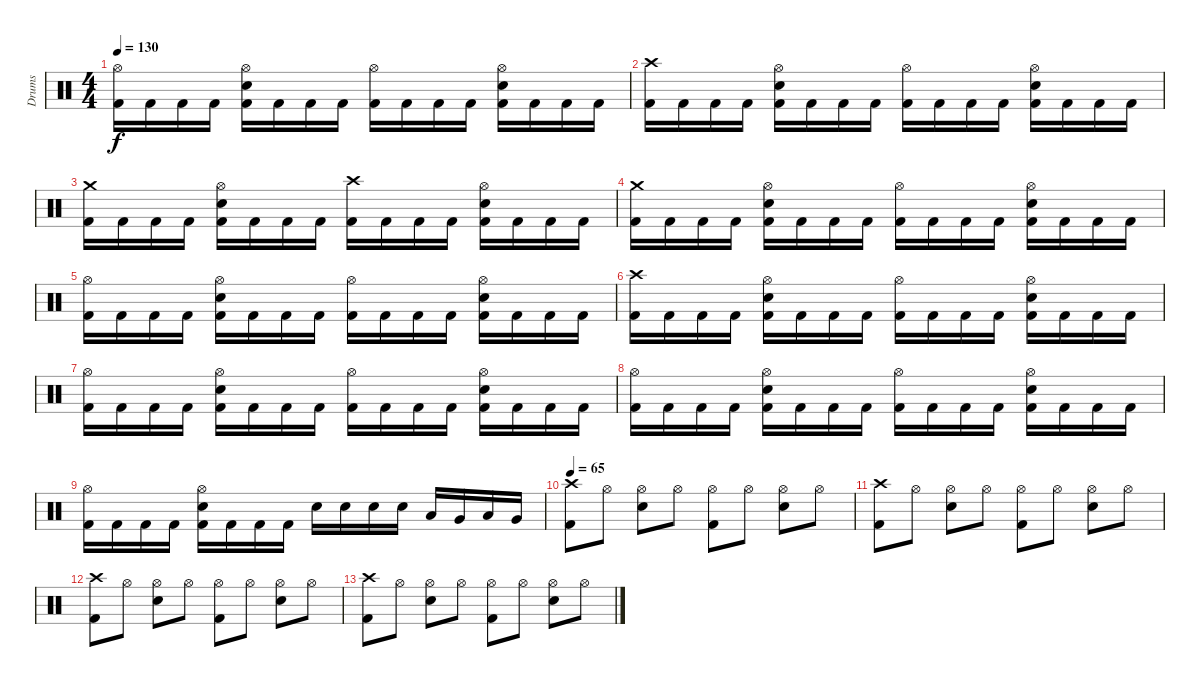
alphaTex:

\track ("Drums" "Drums") {instrument percussion}
\staff {score}
\articulation defaults
\ts (4 4)
\tempo 130
\clef neutral
\ks c
("Hi-Hat (open)" "Kick (hit) 2").16{dy f} "Kick (hit) 2".16 "Kick (hit) 2".16 "Kick (hit) 2".16 ("Hi-Hat (open)" "Electric Snare (hit)" "Kick (hit) 2").16 "Kick (hit) 2".16 "Kick (hit) 2".16 "Kick (hit) 2".16 ("Hi-Hat (open)" "Kick (hit) 2").16 "Kick (hit) 2".16 "Kick (hit) 2".16 "Kick (hit) 2".16 ("Hi-Hat (open)" "Electric Snare (hit)" "Kick (hit) 2").16 "Kick (hit) 2".16 "Kick (hit) 2".16 "Kick (hit) 2".16 |
("Crash high (hit)" "Kick (hit) 2").16 "Kick (hit) 2".16 "Kick (hit) 2".16 "Kick (hit) 2".16 ("Hi-Hat (open)" "Electric Snare (hit)" "Kick (hit) 2").16 "Kick (hit) 2".16 "Kick (hit) 2".16 "Kick (hit) 2".16 ("Hi-Hat (open)" "Kick (hit) 2").16 "Kick (hit) 2".16 "Kick (hit) 2".16 "Kick (hit) 2".16 ("Hi-Hat (open)" "Electric Snare (hit)" "Kick (hit) 2").16 "Kick (hit) 2".16 "Kick (hit) 2".16 "Kick (hit) 2".16 |
("Crash medium (hit)" "Kick (hit) 2").16 "Kick (hit) 2".16 "Kick (hit) 2".16 "Kick (hit) 2".16 ("Hi-Hat (open)" "Electric Snare (hit)" "Kick (hit) 2").16 "Kick (hit) 2".16 "Kick (hit) 2".16 "Kick (hit) 2".16 ("Crash high (hit)" "Kick (hit) 2").16 "Kick (hit) 2".16 "Kick (hit) 2".16 "Kick (hit) 2".16 ("Hi-Hat (open)" "Electric Snare (hit)" "Kick (hit) 2").16 "Kick (hit) 2".16 "Kick (hit) 2".16 "Kick (hit) 2".16 |
("Crash medium (hit)" "Kick (hit) 2").16 "Kick (hit) 2".16 "Kick (hit) 2".16 "Kick (hit) 2".16 ("Hi-Hat (open)" "Electric Snare (hit)" "Kick (hit) 2").16 "Kick (hit) 2".16 "Kick (hit) 2".16 "Kick (hit) 2".16 ("Hi-Hat (open)" "Kick (hit) 2").16 "Kick (hit) 2".16 "Kick (hit) 2".16 "Kick (hit) 2".16 ("Hi-Hat (open)" "Electric Snare (hit)" "Kick (hit) 2").16 "Kick (hit) 2".16 "Kick (hit) 2".16 "Kick (hit) 2".16 |
("Hi-Hat (open)" "Kick (hit) 2").16 "Kick (hit) 2".16 "Kick (hit) 2".16 "Kick (hit) 2".16 ("Hi-Hat (open)" "Electric Snare (hit)" "Kick (hit) 2").16 "Kick (hit) 2".16 "Kick (hit) 2".16 "Kick (hit) 2".16 ("Hi-Hat (open)" "Kick (hit) 2").16 "Kick (hit) 2".16 "Kick (hit) 2".16 "Kick (hit) 2".16 ("Hi-Hat (open)" "Electric Snare (hit)" "Kick (hit) 2").16 "Kick (hit) 2".16 "Kick (hit) 2".16 "Kick (hit) 2".16 |
("Crash high (hit)" "Kick (hit) 2").16 "Kick (hit) 2".16 "Kick (hit) 2".16 "Kick (hit) 2".16 ("Hi-Hat (open)" "Electric Snare (hit)" "Kick (hit) 2").16 "Kick (hit) 2".16 "Kick (hit) 2".16 "Kick (hit) 2".16 ("Hi-Hat (open)" "Kick (hit) 2").16 "Kick (hit) 2".16 "Kick (hit) 2".16 "Kick (hit) 2".16 ("Hi-Hat (open)" "Electric Snare (hit)" "Kick (hit) 2").16 "Kick (hit) 2".16 "Kick (hit) 2".16 "Kick (hit) 2".16 |
("Hi-Hat (open)" "Kick (hit) 2").16 "Kick (hit) 2".16 "Kick (hit) 2".16 "Kick (hit) 2".16 ("Hi-Hat (open)" "Electric Snare (hit)" "Kick (hit) 2").16 "Kick (hit) 2".16 "Kick (hit) 2".16 "Kick (hit) 2".16 ("Hi-Hat (open)" "Kick (hit) 2").16 "Kick (hit) 2".16 "Kick (hit) 2".16 "Kick (hit) 2".16 ("Hi-Hat (open)" "Electric Snare (hit)" "Kick (hit) 2").16 "Kick (hit) 2".16 "Kick (hit) 2".16 "Kick (hit) 2".16 |
("Hi-Hat (open)" "Kick (hit) 2").16 "Kick (hit) 2".16 "Kick (hit) 2".16 "Kick (hit) 2".16 ("Hi-Hat (open)" "Electric Snare (hit)" "Kick (hit) 2").16 "Kick (hit) 2".16 "Kick (hit) 2".16 "Kick (hit) 2".16 ("Hi-Hat (open)" "Kick (hit) 2").16 "Kick (hit) 2".16 "Kick (hit) 2".16 "Kick (hit) 2".16 ("Hi-Hat (open)" "Electric Snare (hit)" "Kick (hit) 2").16 "Kick (hit) 2".16 "Kick (hit) 2".16 "Kick (hit) 2".16 |
("Hi-Hat (open)" "Kick (hit) 2").16 "Kick (hit) 2".16 "Kick (hit) 2".16 "Kick (hit) 2".16 ("Hi-Hat (open)" "Electric Snare (hit)" "Kick (hit) 2").16 "Kick (hit) 2".16 "Kick (hit) 2".16 "Kick (hit) 2".16 "Electric Snare (hit)".16 "Electric Snare (hit)".16 "Electric Snare (hit)".16 "Electric Snare (hit)".16 "Low Tom (hit)".16 "Very Low Tom (hit)".16 "Low Tom (hit)".16 "Very Low Tom (hit)".16 |
\tempo 65
("Crash high (hit)" "Kick (hit) 2").8{volume 8} "Hi-Hat (open)".8 ("Hi-Hat (open)" "Electric Snare (hit)").8 "Hi-Hat (open)".8 ("Hi-Hat (open)" "Kick (hit) 2").8 "Hi-Hat (open)".8 ("Hi-Hat (open)" "Electric Snare (hit)").8 "Hi-Hat (open)".8 |
("Crash high (hit)" "Kick (hit) 2").8 "Hi-Hat (open)".8 ("Hi-Hat (open)" "Electric Snare (hit)").8 "Hi-Hat (open)".8 ("Hi-Hat (open)" "Kick (hit) 2").8 "Hi-Hat (open)".8 ("Hi-Hat (open)" "Electric Snare (hit)").8 "Hi-Hat (open)".8 |
("Crash high (hit)" "Kick (hit) 2").8{volume 2} "Hi-Hat (open)".8 ("Hi-Hat (open)" "Electric Snare (hit)").8 "Hi-Hat (open)".8 ("Hi-Hat (open)" "Kick (hit) 2").8 "Hi-Hat (open)".8 ("Hi-Hat (open)" "Electric Snare (hit)").8 "Hi-Hat (open)".8 |
("Crash high (hit)" "Kick (hit) 2").8 "Hi-Hat (open)".8 ("Hi-Hat (open)" "Electric Snare (hit)").8 "Hi-Hat (open)".8 ("Hi-Hat (open)" "Kick (hit) 2").8 "Hi-Hat (open)".8 ("Hi-Hat (open)" "Electric Snare (hit)").8 "Hi-Hat (open)".8
